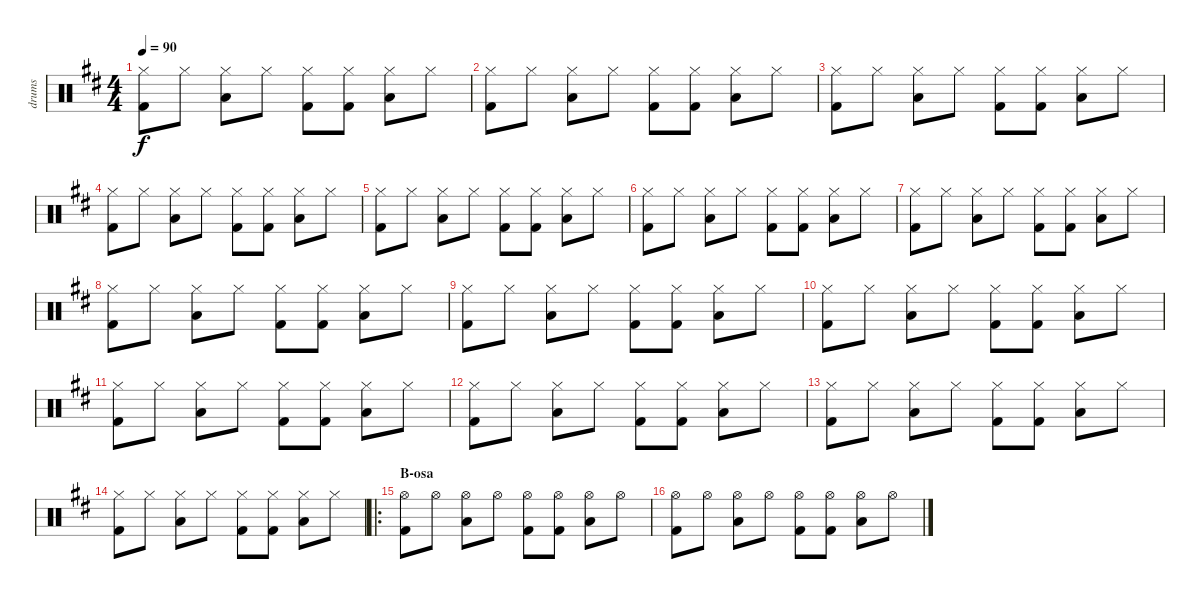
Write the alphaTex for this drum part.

\track ("drums" "drums") {instrument percussion}
\staff {score}
\articulation defaults
\ts (4 4)
\tempo 90
\clef neutral
\ks d
("Hi-Hat (closed)" "Kick (hit) 2").8{dy f} "Hi-Hat (closed)".8 ("Hi-Hat (closed)" "Low Tom (hit)").8 "Hi-Hat (closed)".8 ("Hi-Hat (closed)" "Kick (hit) 2").8 ("Hi-Hat (closed)" "Kick (hit) 2").8 ("Hi-Hat (closed)" "Low Tom (hit)").8 "Hi-Hat (closed)".8 |
("Hi-Hat (closed)" "Kick (hit) 2").8 "Hi-Hat (closed)".8 ("Hi-Hat (closed)" "Low Tom (hit)").8 "Hi-Hat (closed)".8 ("Hi-Hat (closed)" "Kick (hit) 2").8 ("Hi-Hat (closed)" "Kick (hit) 2").8 ("Hi-Hat (closed)" "Low Tom (hit)").8 "Hi-Hat (closed)".8 |
("Hi-Hat (closed)" "Kick (hit) 2").8 "Hi-Hat (closed)".8 ("Hi-Hat (closed)" "Low Tom (hit)").8 "Hi-Hat (closed)".8 ("Hi-Hat (closed)" "Kick (hit) 2").8 ("Hi-Hat (closed)" "Kick (hit) 2").8 ("Hi-Hat (closed)" "Low Tom (hit)").8 "Hi-Hat (closed)".8 |
("Hi-Hat (closed)" "Kick (hit) 2").8 "Hi-Hat (closed)".8 ("Hi-Hat (closed)" "Low Tom (hit)").8 "Hi-Hat (closed)".8 ("Hi-Hat (closed)" "Kick (hit) 2").8 ("Hi-Hat (closed)" "Kick (hit) 2").8 ("Hi-Hat (closed)" "Low Tom (hit)").8 "Hi-Hat (closed)".8 |
("Hi-Hat (closed)" "Kick (hit) 2").8 "Hi-Hat (closed)".8 ("Hi-Hat (closed)" "Low Tom (hit)").8 "Hi-Hat (closed)".8 ("Hi-Hat (closed)" "Kick (hit) 2").8 ("Hi-Hat (closed)" "Kick (hit) 2").8 ("Hi-Hat (closed)" "Low Tom (hit)").8 "Hi-Hat (closed)".8 |
("Hi-Hat (closed)" "Kick (hit) 2").8 "Hi-Hat (closed)".8 ("Hi-Hat (closed)" "Low Tom (hit)").8 "Hi-Hat (closed)".8 ("Hi-Hat (closed)" "Kick (hit) 2").8 ("Hi-Hat (closed)" "Kick (hit) 2").8 ("Hi-Hat (closed)" "Low Tom (hit)").8 "Hi-Hat (closed)".8 |
("Hi-Hat (closed)" "Kick (hit) 2").8 "Hi-Hat (closed)".8 ("Hi-Hat (closed)" "Low Tom (hit)").8 "Hi-Hat (closed)".8 ("Hi-Hat (closed)" "Kick (hit) 2").8 ("Hi-Hat (closed)" "Kick (hit) 2").8 ("Hi-Hat (closed)" "Low Tom (hit)").8 "Hi-Hat (closed)".8 |
("Hi-Hat (closed)" "Kick (hit) 2").8 "Hi-Hat (closed)".8 ("Hi-Hat (closed)" "Low Tom (hit)").8 "Hi-Hat (closed)".8 ("Hi-Hat (closed)" "Kick (hit) 2").8 ("Hi-Hat (closed)" "Kick (hit) 2").8 ("Hi-Hat (closed)" "Low Tom (hit)").8 "Hi-Hat (closed)".8 |
("Hi-Hat (closed)" "Kick (hit) 2").8 "Hi-Hat (closed)".8 ("Hi-Hat (closed)" "Low Tom (hit)").8 "Hi-Hat (closed)".8 ("Hi-Hat (closed)" "Kick (hit) 2").8 ("Hi-Hat (closed)" "Kick (hit) 2").8 ("Hi-Hat (closed)" "Low Tom (hit)").8 "Hi-Hat (closed)".8 |
("Hi-Hat (closed)" "Kick (hit) 2").8 "Hi-Hat (closed)".8 ("Hi-Hat (closed)" "Low Tom (hit)").8 "Hi-Hat (closed)".8 ("Hi-Hat (closed)" "Kick (hit) 2").8 ("Hi-Hat (closed)" "Kick (hit) 2").8 ("Hi-Hat (closed)" "Low Tom (hit)").8 "Hi-Hat (closed)".8 |
("Hi-Hat (closed)" "Kick (hit) 2").8 "Hi-Hat (closed)".8 ("Hi-Hat (closed)" "Low Tom (hit)").8 "Hi-Hat (closed)".8 ("Hi-Hat (closed)" "Kick (hit) 2").8 ("Hi-Hat (closed)" "Kick (hit) 2").8 ("Hi-Hat (closed)" "Low Tom (hit)").8 "Hi-Hat (closed)".8 |
("Hi-Hat (closed)" "Kick (hit) 2").8 "Hi-Hat (closed)".8 ("Hi-Hat (closed)" "Low Tom (hit)").8 "Hi-Hat (closed)".8 ("Hi-Hat (closed)" "Kick (hit) 2").8 ("Hi-Hat (closed)" "Kick (hit) 2").8 ("Hi-Hat (closed)" "Low Tom (hit)").8 "Hi-Hat (closed)".8 |
("Hi-Hat (closed)" "Kick (hit) 2").8 "Hi-Hat (closed)".8 ("Hi-Hat (closed)" "Low Tom (hit)").8 "Hi-Hat (closed)".8 ("Hi-Hat (closed)" "Kick (hit) 2").8 ("Hi-Hat (closed)" "Kick (hit) 2").8 ("Hi-Hat (closed)" "Low Tom (hit)").8 "Hi-Hat (closed)".8 |
("Hi-Hat (closed)" "Kick (hit) 2").8 "Hi-Hat (closed)".8 ("Hi-Hat (closed)" "Low Tom (hit)").8 "Hi-Hat (closed)".8 ("Hi-Hat (closed)" "Kick (hit) 2").8 ("Hi-Hat (closed)" "Kick (hit) 2").8 ("Hi-Hat (closed)" "Low Tom (hit)").8 "Hi-Hat (closed)".8 |
\ro
\section ("" "B-osa")
("Hi-Hat (open)" "Kick (hit) 2").8 "Hi-Hat (open)".8 ("Hi-Hat (open)" "Low Tom (hit)").8 "Hi-Hat (open)".8 ("Hi-Hat (open)" "Kick (hit) 2").8 ("Hi-Hat (open)" "Kick (hit) 2").8 ("Hi-Hat (open)" "Low Tom (hit)").8 "Hi-Hat (open)".8 |
("Hi-Hat (open)" "Kick (hit) 2").8 "Hi-Hat (open)".8 ("Hi-Hat (open)" "Low Tom (hit)").8 "Hi-Hat (open)".8 ("Hi-Hat (open)" "Kick (hit) 2").8 ("Hi-Hat (open)" "Kick (hit) 2").8 ("Hi-Hat (open)" "Low Tom (hit)").8 "Hi-Hat (open)".8
